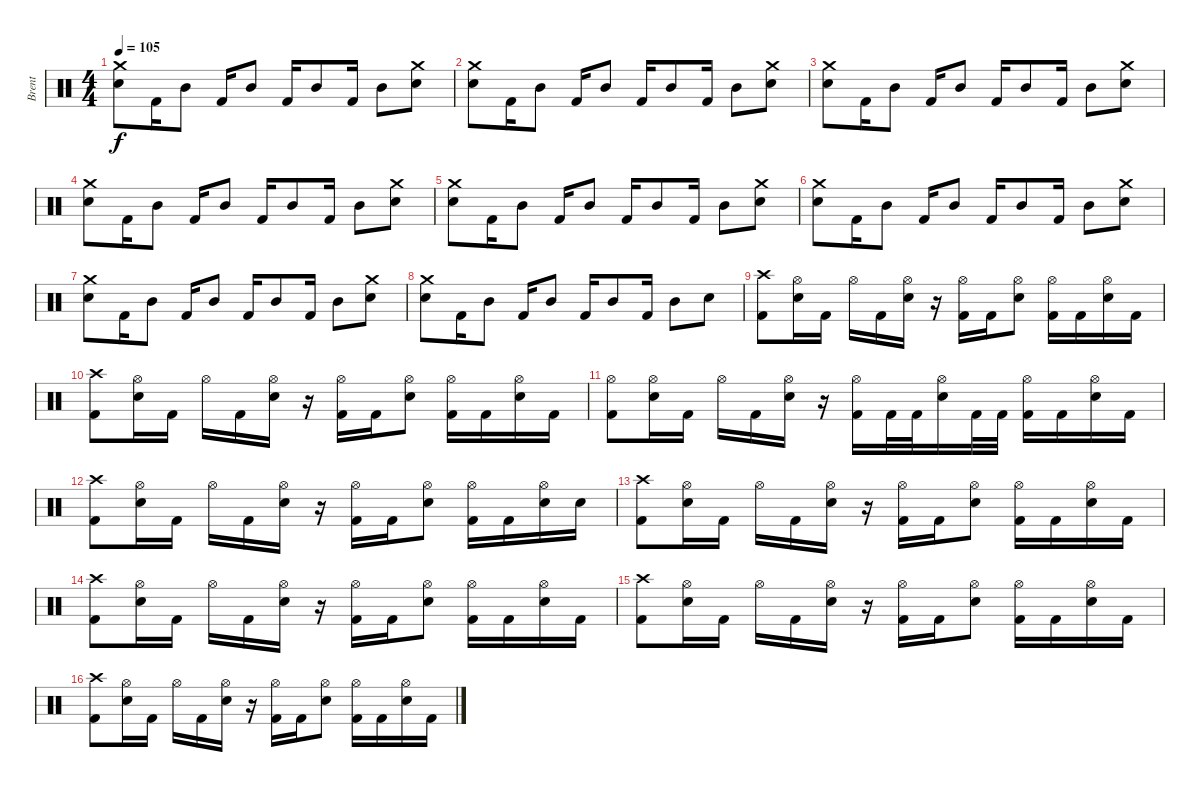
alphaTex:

\track ("Brent" "Brent") {instrument percussion}
\staff {score}
\articulation defaults
\ts (4 4)
\tempo 105
\clef neutral
\ks c
("Crash medium (hit)" "Snare (hit) 2").8{dy f} "Kick (hit) 2".16 "Mid Tom (hit)".8 "Kick (hit) 2".16 "Mid Tom (hit)".8 "Kick (hit) 2".16 "Mid Tom (hit)".8 "Kick (hit) 2".16 "Mid Tom (hit)".8 ("Crash medium (hit)" "Snare (hit) 2").8 |
("Crash medium (hit)" "Snare (hit) 2").8 "Kick (hit) 2".16 "Mid Tom (hit)".8 "Kick (hit) 2".16 "Mid Tom (hit)".8 "Kick (hit) 2".16 "Mid Tom (hit)".8 "Kick (hit) 2".16 "Mid Tom (hit)".8 ("Crash medium (hit)" "Snare (hit) 2").8 |
("Crash medium (hit)" "Snare (hit) 2").8 "Kick (hit) 2".16 "Mid Tom (hit)".8 "Kick (hit) 2".16 "Mid Tom (hit)".8 "Kick (hit) 2".16 "Mid Tom (hit)".8 "Kick (hit) 2".16 "Mid Tom (hit)".8 ("Crash medium (hit)" "Snare (hit) 2").8 |
("Crash medium (hit)" "Snare (hit) 2").8 "Kick (hit) 2".16 "Mid Tom (hit)".8 "Kick (hit) 2".16 "Mid Tom (hit)".8 "Kick (hit) 2".16 "Mid Tom (hit)".8 "Kick (hit) 2".16 "Mid Tom (hit)".8 ("Crash medium (hit)" "Snare (hit) 2").8 |
("Crash medium (hit)" "Snare (hit) 2").8 "Kick (hit) 2".16 "Mid Tom (hit)".8 "Kick (hit) 2".16 "Mid Tom (hit)".8 "Kick (hit) 2".16 "Mid Tom (hit)".8 "Kick (hit) 2".16 "Mid Tom (hit)".8 ("Crash medium (hit)" "Snare (hit) 2").8 |
("Crash medium (hit)" "Snare (hit) 2").8 "Kick (hit) 2".16 "Mid Tom (hit)".8 "Kick (hit) 2".16 "Mid Tom (hit)".8 "Kick (hit) 2".16 "Mid Tom (hit)".8 "Kick (hit) 2".16 "Mid Tom (hit)".8 ("Crash medium (hit)" "Snare (hit) 2").8 |
("Crash medium (hit)" "Snare (hit) 2").8 "Kick (hit) 2".16 "Mid Tom (hit)".8 "Kick (hit) 2".16 "Mid Tom (hit)".8 "Kick (hit) 2".16 "Mid Tom (hit)".8 "Kick (hit) 2".16 "Mid Tom (hit)".8 ("Crash medium (hit)" "Snare (hit) 2").8 |
("Crash medium (hit)" "Snare (hit) 2").8 "Kick (hit) 2".16 "Mid Tom (hit)".8 "Kick (hit) 2".16 "Mid Tom (hit)".8 "Kick (hit) 2".16 "Mid Tom (hit)".8 "Kick (hit) 2".16 "Mid Tom (hit)".8 "Snare (hit) 2".8 |
("Crash high (hit)" "Kick (hit) 2").8 ("Hi-Hat (open)" "Snare (hit) 2").16 "Kick (hit) 2".16 "Hi-Hat (open)".16 "Kick (hit) 2".16 ("Hi-Hat (open)" "Snare (hit) 2").16 r.16 ("Hi-Hat (open)" "Kick (hit) 2").16 "Kick (hit) 2".16 ("Hi-Hat (open)" "Snare (hit) 2").8 ("Hi-Hat (open)" "Kick (hit) 2").16 "Kick (hit) 2".16 ("Hi-Hat (open)" "Snare (hit) 2").16 "Kick (hit) 2".16 |
("Crash high (hit)" "Kick (hit) 2").8 ("Hi-Hat (open)" "Snare (hit) 2").16 "Kick (hit) 2".16 "Hi-Hat (open)".16 "Kick (hit) 2".16 ("Hi-Hat (open)" "Snare (hit) 2").16 r.16 ("Hi-Hat (open)" "Kick (hit) 2").16 "Kick (hit) 2".16 ("Hi-Hat (open)" "Snare (hit) 2").8 ("Hi-Hat (open)" "Kick (hit) 2").16 "Kick (hit) 2".16 ("Hi-Hat (open)" "Snare (hit) 2").16 "Kick (hit) 2".16 |
("Hi-Hat (open)" "Kick (hit) 2").8 ("Hi-Hat (open)" "Snare (hit) 2").16 "Kick (hit) 2".16 "Hi-Hat (open)".16 "Kick (hit) 2".16 ("Hi-Hat (open)" "Snare (hit) 2").16 r.16 ("Hi-Hat (open)" "Kick (hit) 2").16 "Kick (hit) 2".32 "Kick (hit) 2".32 ("Hi-Hat (open)" "Snare (hit) 2").16 "Kick (hit) 2".32 "Kick (hit) 2".32 ("Hi-Hat (open)" "Kick (hit) 2").16 "Kick (hit) 2".16 ("Hi-Hat (open)" "Snare (hit) 2").16 "Kick (hit) 2".16 |
("Crash high (hit)" "Kick (hit) 2").8 ("Hi-Hat (open)" "Snare (hit) 2").16 "Kick (hit) 2".16 "Hi-Hat (open)".16 "Kick (hit) 2".16 ("Hi-Hat (open)" "Snare (hit) 2").16 r.16 ("Hi-Hat (open)" "Kick (hit) 2").16 "Kick (hit) 2".16 ("Hi-Hat (open)" "Snare (hit) 2").8 ("Hi-Hat (open)" "Kick (hit) 2").16 "Kick (hit) 2".16 ("Hi-Hat (open)" "Snare (hit) 2").16 "Snare (hit) 2".16 |
("Crash high (hit)" "Kick (hit) 2").8 ("Hi-Hat (open)" "Snare (hit) 2").16 "Kick (hit) 2".16 "Hi-Hat (open)".16 "Kick (hit) 2".16 ("Hi-Hat (open)" "Snare (hit) 2").16 r.16 ("Hi-Hat (open)" "Kick (hit) 2").16 "Kick (hit) 2".16 ("Hi-Hat (open)" "Snare (hit) 2").8 ("Hi-Hat (open)" "Kick (hit) 2").16 "Kick (hit) 2".16 ("Hi-Hat (open)" "Snare (hit) 2").16 "Kick (hit) 2".16 |
("Crash high (hit)" "Kick (hit) 2").8 ("Hi-Hat (open)" "Snare (hit) 2").16 "Kick (hit) 2".16 "Hi-Hat (open)".16 "Kick (hit) 2".16 ("Hi-Hat (open)" "Snare (hit) 2").16 r.16 ("Hi-Hat (open)" "Kick (hit) 2").16 "Kick (hit) 2".16 ("Hi-Hat (open)" "Snare (hit) 2").8 ("Hi-Hat (open)" "Kick (hit) 2").16 "Kick (hit) 2".16 ("Hi-Hat (open)" "Snare (hit) 2").16 "Kick (hit) 2".16 |
("Crash high (hit)" "Kick (hit) 2").8 ("Hi-Hat (open)" "Snare (hit) 2").16 "Kick (hit) 2".16 "Hi-Hat (open)".16 "Kick (hit) 2".16 ("Hi-Hat (open)" "Snare (hit) 2").16 r.16 ("Hi-Hat (open)" "Kick (hit) 2").16 "Kick (hit) 2".16 ("Hi-Hat (open)" "Snare (hit) 2").8 ("Hi-Hat (open)" "Kick (hit) 2").16 "Kick (hit) 2".16 ("Hi-Hat (open)" "Snare (hit) 2").16 "Kick (hit) 2".16 |
("Crash high (hit)" "Kick (hit) 2").8 ("Hi-Hat (open)" "Snare (hit) 2").16 "Kick (hit) 2".16 "Hi-Hat (open)".16 "Kick (hit) 2".16 ("Hi-Hat (open)" "Snare (hit) 2").16 r.16 ("Hi-Hat (open)" "Kick (hit) 2").16 "Kick (hit) 2".16 ("Hi-Hat (open)" "Snare (hit) 2").8 ("Hi-Hat (open)" "Kick (hit) 2").16 "Kick (hit) 2".16 ("Hi-Hat (open)" "Snare (hit) 2").16 "Kick (hit) 2".16
